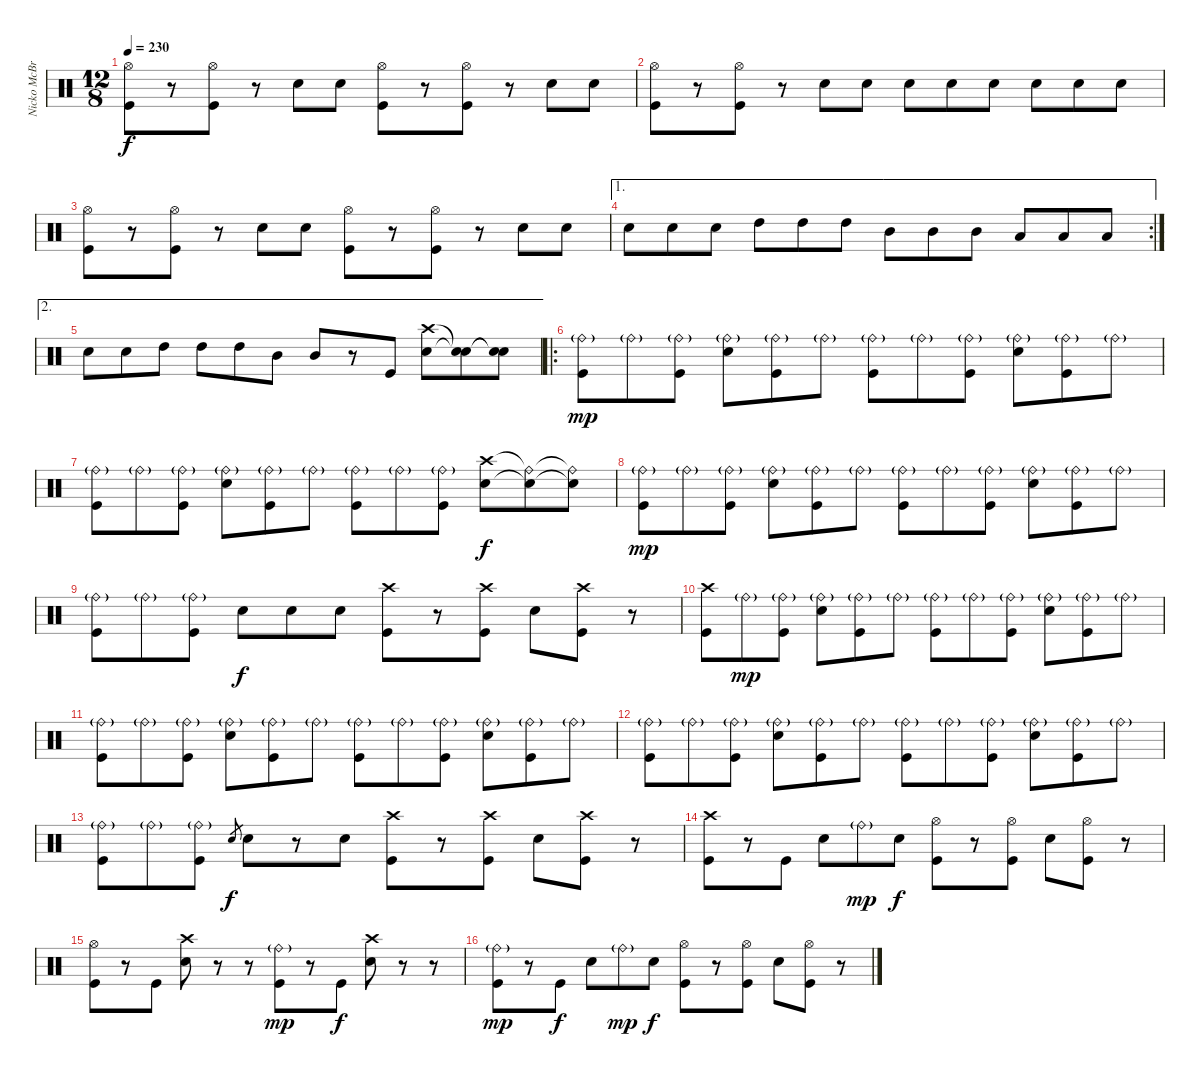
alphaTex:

\track ("Nicko McBrain" "Nicko McBr") {instrument percussion}
\staff {score}
\articulation defaults
\ts (12 8)
\tempo 230
\clef neutral
\ks c
("Hi-Hat (open)" "Kick (hit)").8{dy f} r.8 ("Hi-Hat (open)" "Kick (hit)").8 r.8 "Electric Snare (hit)".8 "Electric Snare (hit)".8 ("Hi-Hat (open)" "Kick (hit)").8 r.8 ("Hi-Hat (open)" "Kick (hit)").8 r.8 "Electric Snare (hit)".8 "Electric Snare (hit)".8 |
("Hi-Hat (open)" "Kick (hit)").8 r.8 ("Hi-Hat (open)" "Kick (hit)").8 r.8 "Electric Snare (hit)".8 "Electric Snare (hit)".8 "Electric Snare (hit)".8 "Electric Snare (hit)".8 "Electric Snare (hit)".8 "Electric Snare (hit)".8 "Electric Snare (hit)".8 "Electric Snare (hit)".8 |
("Hi-Hat (open)" "Kick (hit)").8 r.8 ("Hi-Hat (open)" "Kick (hit)").8 r.8 "Electric Snare (hit)".8 "Electric Snare (hit)".8 ("Hi-Hat (open)" "Kick (hit)").8 r.8 ("Hi-Hat (open)" "Kick (hit)").8 r.8 "Electric Snare (hit)".8 "Electric Snare (hit)".8 |
\ae 1
\rc 2 "Electric Snare (hit)".8 "Electric Snare (hit)".8 "Electric Snare (hit)".8 "High Tom (hit)".8 "High Tom (hit)".8 "High Tom (hit)".8 "Mid Tom (hit)".8 "Mid Tom (hit)".8 "Mid Tom (hit)".8 "Low Tom (hit)".8 "Low Tom (hit)".8 "Low Tom (hit)".8
|
\ae 2 "Electric Snare (hit)".8 "Electric Snare (hit)".8 "High Tom (hit)".8 "High Tom (hit)".8 "High Tom (hit)".8 "Mid Tom (hit)".8 "Mid Tom (hit)".8
r.8 "Kick (hit)".8 ("Crash high (hit)" "Electric Snare (hit)").8 ("Snare (hit)"{t} "Electric Snare (hit)"{t}).8 ("Snare (hit)"{t} "Electric Snare (hit)"{t}).8 |
\ro
("Ride (bell)"{g} "Kick (hit)").8{dy mp} "Ride (bell)"{g}.8 ("Ride (bell)"{g} "Kick (hit)").8 ("Ride (bell)"{g} "Electric Snare (hit)").8 ("Ride (bell)"{g} "Kick (hit)").8 "Ride (bell)"{g}.8 ("Ride (bell)"{g} "Kick (hit)").8 "Ride (bell)"{g}.8 ("Ride (bell)"{g} "Kick (hit)").8 ("Ride (bell)"{g} "Electric Snare (hit)").8 ("Ride (bell)"{g} "Kick (hit)").8 "Ride (bell)"{g}.8 |
("Ride (bell)"{g} "Kick (hit)").8 "Ride (bell)"{g}.8 ("Ride (bell)"{g} "Kick (hit)").8 ("Ride (bell)"{g} "Electric Snare (hit)").8 ("Ride (bell)"{g} "Kick (hit)").8 "Ride (bell)"{g}.8 ("Ride (bell)"{g} "Kick (hit)").8 "Ride (bell)"{g}.8 ("Ride (bell)"{g} "Kick (hit)").8 ("Crash high (hit)" "Electric Snare (hit)").8{dy f} ("Ride (bell)"{t} "Snare (hit)"{t}).8 ("Ride (bell)"{t} "Snare (hit)"{t}).8 |
("Ride (bell)"{g} "Kick (hit)").8{dy mp} "Ride (bell)"{g}.8 ("Ride (bell)"{g} "Kick (hit)").8 ("Ride (bell)"{g} "Electric Snare (hit)").8 ("Ride (bell)"{g} "Kick (hit)").8 "Ride (bell)"{g}.8 ("Ride (bell)"{g} "Kick (hit)").8 "Ride (bell)"{g}.8 ("Ride (bell)"{g} "Kick (hit)").8 ("Ride (bell)"{g} "Electric Snare (hit)").8 ("Ride (bell)"{g} "Kick (hit)").8 "Ride (bell)"{g}.8 |
("Ride (bell)"{g} "Kick (hit)").8 "Ride (bell)"{g}.8 ("Ride (bell)"{g} "Kick (hit)").8 "Electric Snare (hit)".8{dy f} "Electric Snare (hit)".8 "Electric Snare (hit)".8 ("Crash high (hit)" "Kick (hit)").8 r.8 ("Crash high (hit)" "Kick (hit)").8 "Electric Snare (hit)".8 ("Crash high (hit)" "Kick (hit)").8 r.8 |
("Crash high (hit)" "Kick (hit)").8 "Ride (bell)"{g}.8{dy mp} ("Ride (bell)"{g} "Kick (hit)").8 ("Ride (bell)"{g} "Electric Snare (hit)").8 ("Ride (bell)"{g} "Kick (hit)").8 "Ride (bell)"{g}.8 ("Ride (bell)"{g} "Kick (hit)").8 "Ride (bell)"{g}.8 ("Ride (bell)"{g} "Kick (hit)").8 ("Ride (bell)"{g} "Electric Snare (hit)").8 ("Ride (bell)"{g} "Kick (hit)").8 "Ride (bell)"{g}.8 |
("Ride (bell)"{g} "Kick (hit)").8 "Ride (bell)"{g}.8 ("Ride (bell)"{g} "Kick (hit)").8 ("Ride (bell)"{g} "Electric Snare (hit)").8 ("Ride (bell)"{g} "Kick (hit)").8 "Ride (bell)"{g}.8 ("Ride (bell)"{g} "Kick (hit)").8 "Ride (bell)"{g}.8 ("Ride (bell)"{g} "Kick (hit)").8 ("Ride (bell)"{g} "Electric Snare (hit)").8 ("Ride (bell)"{g} "Kick (hit)").8 "Ride (bell)"{g}.8 |
("Ride (bell)"{g} "Kick (hit)").8 "Ride (bell)"{g}.8 ("Ride (bell)"{g} "Kick (hit)").8 ("Ride (bell)"{g} "Electric Snare (hit)").8 ("Ride (bell)"{g} "Kick (hit)").8 "Ride (bell)"{g}.8 ("Ride (bell)"{g} "Kick (hit)").8 "Ride (bell)"{g}.8 ("Ride (bell)"{g} "Kick (hit)").8 ("Ride (bell)"{g} "Electric Snare (hit)").8 ("Ride (bell)"{g} "Kick (hit)").8 "Ride (bell)"{g}.8 |
("Ride (bell)"{g} "Kick (hit)").8 "Ride (bell)"{g}.8 ("Ride (bell)"{g} "Kick (hit)").8 "Electric Snare (hit)".8{gr dy f} "Electric Snare (hit)".8 r.8 "Electric Snare (hit)".8 ("Crash high (hit)" "Kick (hit)").8 r.8 ("Crash high (hit)" "Kick (hit)").8 "Electric Snare (hit)".8 ("Crash high (hit)" "Kick (hit)").8 r.8 |
("Crash high (hit)" "Kick (hit)").8 r.8 "Kick (hit)".8 "Electric Snare (hit)".8 "Ride (bell)"{g}.8{dy mp} "Electric Snare (hit)".8{dy f} ("Hi-Hat (open)" "Kick (hit)").8 r.8 ("Hi-Hat (open)" "Kick (hit)").8 "Electric Snare (hit)".8 ("Hi-Hat (open)" "Kick (hit)").8 r.8 |
("Hi-Hat (open)" "Kick (hit)").8 r.8 "Kick (hit)".8 ("Crash high (hit)" "Electric Snare (hit)").8 r.8 r.8 ("Ride (bell)"{g} "Kick (hit)").8{dy mp} r.8 "Kick (hit)".8{dy f} ("Crash high (hit)" "Electric Snare (hit)").8 r.8 r.8 |
("Ride (bell)"{g} "Kick (hit)").8{dy mp} r.8 "Kick (hit)".8{dy f} "Electric Snare (hit)".8 "Ride (bell)"{g}.8{dy mp} "Electric Snare (hit)".8{dy f} ("Hi-Hat (open)" "Kick (hit)").8 r.8 ("Hi-Hat (open)" "Kick (hit)").8 "Electric Snare (hit)".8 ("Hi-Hat (open)" "Kick (hit)").8 r.8
